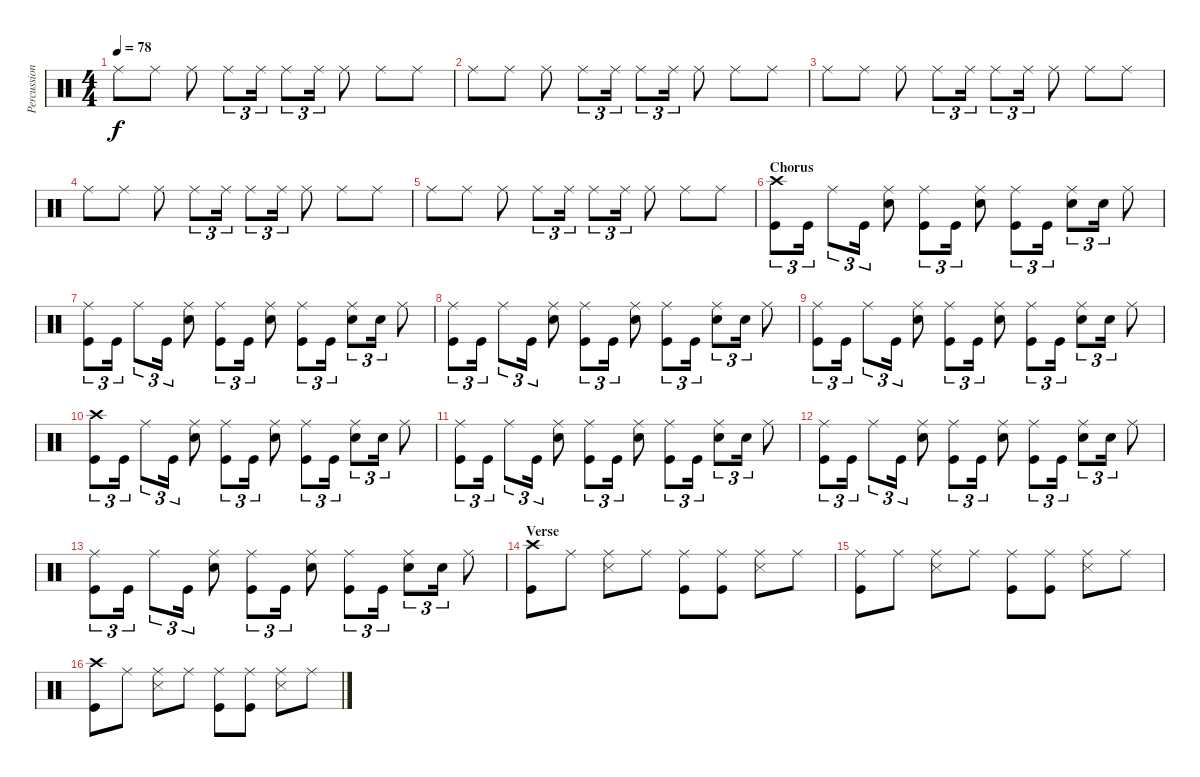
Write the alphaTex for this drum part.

\track ("Percussion" "Percussion") {instrument percussion}
\staff {score}
\articulation defaults
\ts (4 4)
\tempo 78
\clef neutral
\ks c "Ride (middle)".8{dy f} "Ride (middle)".8 "Ride (middle)".8 "Ride (middle)".8{tu (3 2)} "Ride (middle)".16{tu (3 2)} "Ride (middle)".8{tu (3 2)} "Ride (middle)".16{tu (3 2)} "Ride (middle)".8 "Ride (middle)".8 "Ride (middle)".8
|
"Ride (middle)".8 "Ride (middle)".8 "Ride (middle)".8 "Ride (middle)".8{tu (3 2)} "Ride (middle)".16{tu (3 2)} "Ride (middle)".8{tu (3 2)} "Ride (middle)".16{tu (3 2)} "Ride (middle)".8 "Ride (middle)".8 "Ride (middle)".8 |
"Ride (middle)".8 "Ride (middle)".8 "Ride (middle)".8 "Ride (middle)".8{tu (3 2)} "Ride (middle)".16{tu (3 2)} "Ride (middle)".8{tu (3 2)} "Ride (middle)".16{tu (3 2)} "Ride (middle)".8 "Ride (middle)".8 "Ride (middle)".8 |
"Ride (middle)".8 "Ride (middle)".8 "Ride (middle)".8 "Ride (middle)".8{tu (3 2)} "Ride (middle)".16{tu (3 2)} "Ride (middle)".8{tu (3 2)} "Ride (middle)".16{tu (3 2)} "Ride (middle)".8 "Ride (middle)".8 "Ride (middle)".8 |
"Ride (middle)".8 "Ride (middle)".8 "Ride (middle)".8 "Ride (middle)".8{tu (3 2)} "Ride (middle)".16{tu (3 2)} "Ride (middle)".8{tu (3 2)} "Ride (middle)".16{tu (3 2)} "Ride (middle)".8 "Ride (middle)".8 "Ride (middle)".8 |
\section ("" "Chorus")
("Crash high (hit)" "Kick (hit)").8{tu (3 2)} "Kick (hit)".16{tu (3 2)} "Ride (middle)".8{tu (3 2)} "Kick (hit)".16{tu (3 2)} ("Ride (middle)" "Snare (hit) 2").8 ("Ride (middle)" "Kick (hit)").8{tu (3 2)} "Kick (hit)".16{tu (3 2)} ("Ride (middle)" "Snare (hit) 2").8 ("Ride (middle)" "Kick (hit)").8{tu (3 2)} "Kick (hit)".16{tu (3 2)} ("Ride (middle)" "Snare (hit) 2").8{tu (3 2)} "Snare (hit) 2".16{tu (3 2)} "Ride (middle)".8 |
("Ride (middle)" "Kick (hit)").8{tu (3 2)} "Kick (hit)".16{tu (3 2)} "Ride (middle)".8{tu (3 2)} "Kick (hit)".16{tu (3 2)} ("Ride (middle)" "Snare (hit) 2").8 ("Ride (middle)" "Kick (hit)").8{tu (3 2)} "Kick (hit)".16{tu (3 2)} ("Ride (middle)" "Snare (hit) 2").8 ("Ride (middle)" "Kick (hit)").8{tu (3 2)} "Kick (hit)".16{tu (3 2)} ("Ride (middle)" "Snare (hit) 2").8{tu (3 2)} "Snare (hit) 2".16{tu (3 2)} "Ride (middle)".8 |
("Ride (middle)" "Kick (hit)").8{tu (3 2)} "Kick (hit)".16{tu (3 2)} "Ride (middle)".8{tu (3 2)} "Kick (hit)".16{tu (3 2)} ("Ride (middle)" "Snare (hit) 2").8 ("Ride (middle)" "Kick (hit)").8{tu (3 2)} "Kick (hit)".16{tu (3 2)} ("Ride (middle)" "Snare (hit) 2").8 ("Ride (middle)" "Kick (hit)").8{tu (3 2)} "Kick (hit)".16{tu (3 2)} ("Ride (middle)" "Snare (hit) 2").8{tu (3 2)} "Snare (hit) 2".16{tu (3 2)} "Ride (middle)".8 |
("Ride (middle)" "Kick (hit)").8{tu (3 2)} "Kick (hit)".16{tu (3 2)} "Ride (middle)".8{tu (3 2)} "Kick (hit)".16{tu (3 2)} ("Ride (middle)" "Snare (hit) 2").8 ("Ride (middle)" "Kick (hit)").8{tu (3 2)} "Kick (hit)".16{tu (3 2)} ("Ride (middle)" "Snare (hit) 2").8 ("Ride (middle)" "Kick (hit)").8{tu (3 2)} "Kick (hit)".16{tu (3 2)} ("Ride (middle)" "Snare (hit) 2").8{tu (3 2)} "Snare (hit) 2".16{tu (3 2)} "Ride (middle)".8 |
("Crash high (hit)" "Kick (hit)").8{tu (3 2)} "Kick (hit)".16{tu (3 2)} "Ride (middle)".8{tu (3 2)} "Kick (hit)".16{tu (3 2)} ("Ride (middle)" "Snare (hit) 2").8 ("Ride (middle)" "Kick (hit)").8{tu (3 2)} "Kick (hit)".16{tu (3 2)} ("Ride (middle)" "Snare (hit) 2").8 ("Ride (middle)" "Kick (hit)").8{tu (3 2)} "Kick (hit)".16{tu (3 2)} ("Ride (middle)" "Snare (hit) 2").8{tu (3 2)} "Snare (hit) 2".16{tu (3 2)} "Ride (middle)".8 |
("Ride (middle)" "Kick (hit)").8{tu (3 2)} "Kick (hit)".16{tu (3 2)} "Ride (middle)".8{tu (3 2)} "Kick (hit)".16{tu (3 2)} ("Ride (middle)" "Snare (hit) 2").8 ("Ride (middle)" "Kick (hit)").8{tu (3 2)} "Kick (hit)".16{tu (3 2)} ("Ride (middle)" "Snare (hit) 2").8 ("Ride (middle)" "Kick (hit)").8{tu (3 2)} "Kick (hit)".16{tu (3 2)} ("Ride (middle)" "Snare (hit) 2").8{tu (3 2)} "Snare (hit) 2".16{tu (3 2)} "Ride (middle)".8 |
("Ride (middle)" "Kick (hit)").8{tu (3 2)} "Kick (hit)".16{tu (3 2)} "Ride (middle)".8{tu (3 2)} "Kick (hit)".16{tu (3 2)} ("Ride (middle)" "Snare (hit) 2").8 ("Ride (middle)" "Kick (hit)").8{tu (3 2)} "Kick (hit)".16{tu (3 2)} ("Ride (middle)" "Snare (hit) 2").8 ("Ride (middle)" "Kick (hit)").8{tu (3 2)} "Kick (hit)".16{tu (3 2)} ("Ride (middle)" "Snare (hit) 2").8{tu (3 2)} "Snare (hit) 2".16{tu (3 2)} "Ride (middle)".8 |
("Ride (middle)" "Kick (hit)").8{tu (3 2)} "Kick (hit)".16{tu (3 2)} "Ride (middle)".8{tu (3 2)} "Kick (hit)".16{tu (3 2)} ("Ride (middle)" "Snare (hit) 2").8 ("Ride (middle)" "Kick (hit)").8{tu (3 2)} "Kick (hit)".16{tu (3 2)} ("Ride (middle)" "Snare (hit) 2").8 ("Ride (middle)" "Kick (hit)").8{tu (3 2)} "Kick (hit)".16{tu (3 2)} ("Ride (middle)" "Snare (hit) 2").8{tu (3 2)} "Snare (hit) 2".16{tu (3 2)} "Ride (middle)".8 |
\section ("" "Verse")
("Crash high (hit)" "Kick (hit)").8 "Ride (middle)".8 ("Ride (middle)" "Snare (side stick) 3").8 "Ride (middle)".8 ("Ride (middle)" "Kick (hit)").8 ("Ride (middle)" "Kick (hit)").8 ("Ride (middle)" "Snare (side stick) 3").8 "Ride (middle)".8 |
("Ride (middle)" "Kick (hit)").8 "Ride (middle)".8 ("Ride (middle)" "Snare (side stick) 3").8 "Ride (middle)".8 ("Ride (middle)" "Kick (hit)").8 ("Ride (middle)" "Kick (hit)").8 ("Ride (middle)" "Snare (side stick) 3").8 "Ride (middle)".8 |
("Crash high (hit)" "Kick (hit)").8 "Ride (middle)".8 ("Ride (middle)" "Snare (side stick) 3").8 "Ride (middle)".8 ("Ride (middle)" "Kick (hit)").8 ("Ride (middle)" "Kick (hit)").8 ("Ride (middle)" "Snare (side stick) 3").8 "Ride (middle)".8
